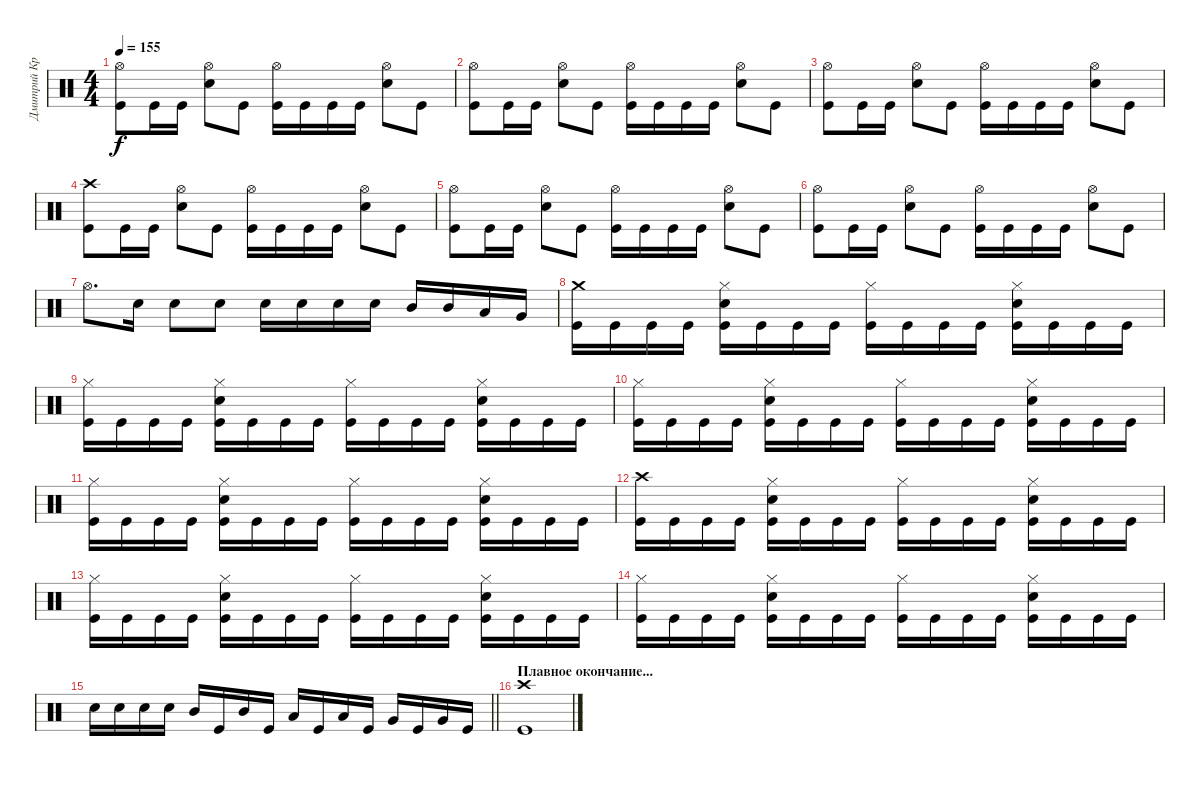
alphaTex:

\track ("Дмитрий Кривенков" "Дмитрий Кр") {instrument percussion}
\staff {score}
\articulation defaults
\ts (4 4)
\tempo 155
\clef neutral
\ks c
("Hi-Hat (open)" "Kick (hit)").8{dy f} "Kick (hit)".16 "Kick (hit)".16 ("Hi-Hat (open)" "Snare (hit) 2").8 "Kick (hit)".8 ("Hi-Hat (open)" "Kick (hit)").16 "Kick (hit)".16 "Kick (hit)".16 "Kick (hit)".16 ("Hi-Hat (open)" "Snare (hit) 2").8 "Kick (hit)".8 |
("Hi-Hat (open)" "Kick (hit)").8 "Kick (hit)".16 "Kick (hit)".16 ("Hi-Hat (open)" "Snare (hit) 2").8 "Kick (hit)".8 ("Hi-Hat (open)" "Kick (hit)").16 "Kick (hit)".16 "Kick (hit)".16 "Kick (hit)".16 ("Hi-Hat (open)" "Snare (hit) 2").8 "Kick (hit)".8 |
("Hi-Hat (open)" "Kick (hit)").8 "Kick (hit)".16 "Kick (hit)".16 ("Hi-Hat (open)" "Snare (hit) 2").8 "Kick (hit)".8 ("Hi-Hat (open)" "Kick (hit)").16 "Kick (hit)".16 "Kick (hit)".16 "Kick (hit)".16 ("Hi-Hat (open)" "Snare (hit) 2").8 "Kick (hit)".8 |
("Crash high (hit)" "Kick (hit)").8 "Kick (hit)".16 "Kick (hit)".16 ("Hi-Hat (open)" "Snare (hit) 2").8 "Kick (hit)".8 ("Hi-Hat (open)" "Kick (hit)").16 "Kick (hit)".16 "Kick (hit)".16 "Kick (hit)".16 ("Hi-Hat (open)" "Snare (hit) 2").8 "Kick (hit)".8 |
("Hi-Hat (open)" "Kick (hit)").8 "Kick (hit)".16 "Kick (hit)".16 ("Hi-Hat (open)" "Snare (hit) 2").8 "Kick (hit)".8 ("Hi-Hat (open)" "Kick (hit)").16 "Kick (hit)".16 "Kick (hit)".16 "Kick (hit)".16 ("Hi-Hat (open)" "Snare (hit) 2").8 "Kick (hit)".8 |
("Hi-Hat (open)" "Kick (hit)").8 "Kick (hit)".16 "Kick (hit)".16 ("Hi-Hat (open)" "Snare (hit) 2").8 "Kick (hit)".8 ("Hi-Hat (open)" "Kick (hit)").16 "Kick (hit)".16 "Kick (hit)".16 "Kick (hit)".16 ("Hi-Hat (open)" "Snare (hit) 2").8 "Kick (hit)".8 |
"Hi-Hat (open)".8{d} "Snare (hit) 2".16 "Snare (hit) 2".8 "Snare (hit) 2".8 "Snare (hit) 2".16 "Snare (hit) 2".16 "Snare (hit) 2".16 "Snare (hit) 2".16 "Mid Tom (hit)".16 "Mid Tom (hit)".16 "Low Tom (hit)".16 "Very Low Tom (hit)".16 |
("Crash medium (hit)" "Kick (hit)").16 "Kick (hit)".16 "Kick (hit)".16 "Kick (hit)".16 ("Hi-Hat (closed)" "Snare (hit) 2" "Kick (hit)").16 "Kick (hit)".16 "Kick (hit)".16 "Kick (hit)".16 ("Hi-Hat (closed)" "Kick (hit)").16 "Kick (hit)".16 "Kick (hit)".16 "Kick (hit)".16 ("Hi-Hat (closed)" "Snare (hit) 2" "Kick (hit)").16 "Kick (hit)".16 "Kick (hit)".16 "Kick (hit)".16 |
("Hi-Hat (closed)" "Kick (hit)").16 "Kick (hit)".16 "Kick (hit)".16 "Kick (hit)".16 ("Hi-Hat (closed)" "Snare (hit) 2" "Kick (hit)").16 "Kick (hit)".16 "Kick (hit)".16 "Kick (hit)".16 ("Hi-Hat (closed)" "Kick (hit)").16 "Kick (hit)".16 "Kick (hit)".16 "Kick (hit)".16 ("Hi-Hat (closed)" "Snare (hit) 2" "Kick (hit)").16 "Kick (hit)".16 "Kick (hit)".16 "Kick (hit)".16 |
("Hi-Hat (closed)" "Kick (hit)").16 "Kick (hit)".16 "Kick (hit)".16 "Kick (hit)".16 ("Hi-Hat (closed)" "Snare (hit) 2" "Kick (hit)").16 "Kick (hit)".16 "Kick (hit)".16 "Kick (hit)".16 ("Hi-Hat (closed)" "Kick (hit)").16 "Kick (hit)".16 "Kick (hit)".16 "Kick (hit)".16 ("Hi-Hat (closed)" "Snare (hit) 2" "Kick (hit)").16 "Kick (hit)".16 "Kick (hit)".16 "Kick (hit)".16 |
("Hi-Hat (closed)" "Kick (hit)").16 "Kick (hit)".16 "Kick (hit)".16 "Kick (hit)".16 ("Hi-Hat (closed)" "Snare (hit) 2" "Kick (hit)").16 "Kick (hit)".16 "Kick (hit)".16 "Kick (hit)".16 ("Hi-Hat (closed)" "Kick (hit)").16 "Kick (hit)".16 "Kick (hit)".16 "Kick (hit)".16 ("Hi-Hat (closed)" "Snare (hit) 2" "Kick (hit)").16 "Kick (hit)".16 "Kick (hit)".16 "Kick (hit)".16 |
("Crash high (hit)" "Kick (hit)").16 "Kick (hit)".16 "Kick (hit)".16 "Kick (hit)".16 ("Hi-Hat (closed)" "Snare (hit) 2" "Kick (hit)").16 "Kick (hit)".16 "Kick (hit)".16 "Kick (hit)".16 ("Hi-Hat (closed)" "Kick (hit)").16 "Kick (hit)".16 "Kick (hit)".16 "Kick (hit)".16 ("Hi-Hat (closed)" "Snare (hit) 2" "Kick (hit)").16 "Kick (hit)".16 "Kick (hit)".16 "Kick (hit)".16 |
("Hi-Hat (closed)" "Kick (hit)").16 "Kick (hit)".16 "Kick (hit)".16 "Kick (hit)".16 ("Hi-Hat (closed)" "Snare (hit) 2" "Kick (hit)").16 "Kick (hit)".16 "Kick (hit)".16 "Kick (hit)".16 ("Hi-Hat (closed)" "Kick (hit)").16 "Kick (hit)".16 "Kick (hit)".16 "Kick (hit)".16 ("Hi-Hat (closed)" "Snare (hit) 2" "Kick (hit)").16 "Kick (hit)".16 "Kick (hit)".16 "Kick (hit)".16 |
("Hi-Hat (closed)" "Kick (hit)").16 "Kick (hit)".16 "Kick (hit)".16 "Kick (hit)".16 ("Hi-Hat (closed)" "Snare (hit) 2" "Kick (hit)").16 "Kick (hit)".16 "Kick (hit)".16 "Kick (hit)".16 ("Hi-Hat (closed)" "Kick (hit)").16 "Kick (hit)".16 "Kick (hit)".16 "Kick (hit)".16 ("Hi-Hat (closed)" "Snare (hit) 2" "Kick (hit)").16 "Kick (hit)".16 "Kick (hit)".16 "Kick (hit)".16 |
\barLineRight lightlight "Snare (hit) 2".16 "Snare (hit) 2".16 "Snare (hit) 2".16 "Snare (hit) 2".16 "Mid Tom (hit)".16 "Kick (hit)".16 "Mid Tom (hit)".16 "Kick (hit)".16 "Low Tom (hit)".16 "Kick (hit)".16 "Low Tom (hit)".16 "Kick (hit)".16 "Very Low Tom (hit)".16 "Kick (hit)".16 "Very Low Tom (hit)".16 "Kick (hit)".16
|
\section ("" "Плавное окончание...")
("Crash high (hit)" "Kick (hit)").1
